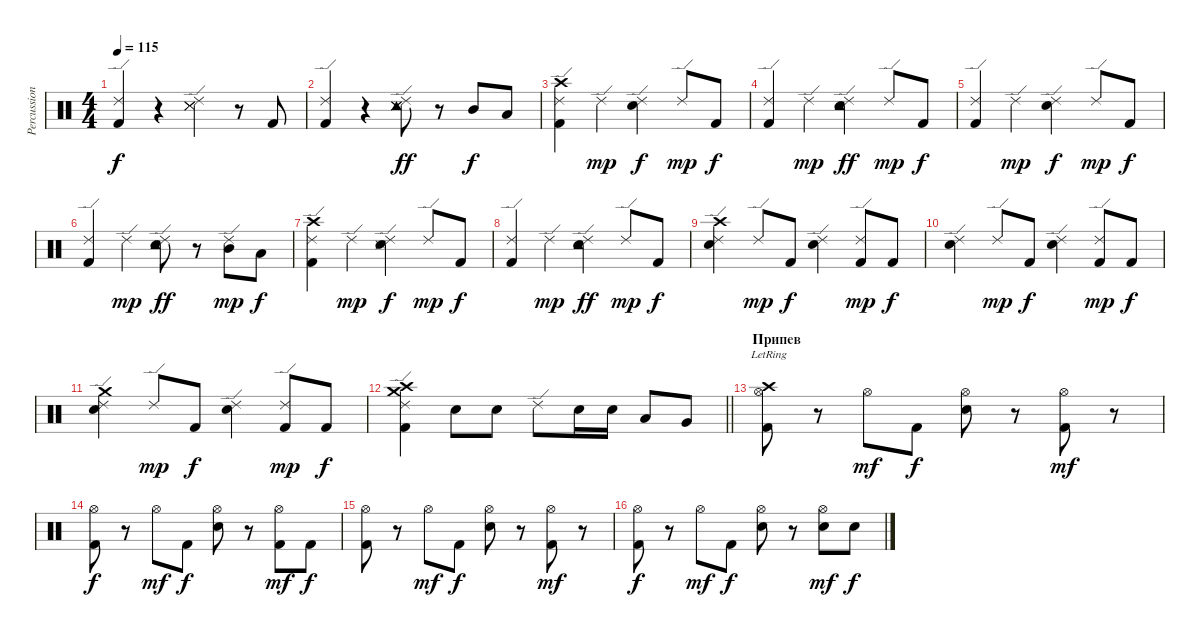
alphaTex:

\track ("Percussions" "Percussion") {instrument percussion}
\staff {score}
\articulation defaults
\ts (4 4)
\tempo 115
\clef neutral
\ks c
("Kick (hit) 2" "Ride (edge) 2").4{dy f} r.4 ("Snare (side stick) 3" "Snare (side stick) 3" "Snare (side stick) 3" "Ride (edge) 2").4 r.8 "Kick (hit) 2".8 |
("Kick (hit) 2" "Ride (edge) 2").4 r.4 ("Snare (side stick) 3" "Snare (side stick) 3" "Snare (side stick) 3" "Tambourine (hit)" "Ride (edge) 2").8{dy ff} r.8 "Mid Tom (hit)".8{dy f} "Low Tom (hit)".8 |
("Crash high (hit)" "Kick (hit) 2" "Ride (edge) 2").4 "Ride (edge) 2".4{dy mp} ("Electric Snare (hit)" "Ride (edge) 2").4{dy f} "Ride (edge) 2".8{dy mp} "Kick (hit) 2".8{dy f} |
("Kick (hit) 2" "Ride (edge) 2").4 "Ride (edge) 2".4{dy mp} ("Electric Snare (hit)" "Tambourine (hit)" "Ride (edge) 2").4{dy ff} "Ride (edge) 2".8{dy mp} "Kick (hit) 2".8{dy f} |
("Kick (hit) 2" "Ride (edge) 2").4 "Ride (edge) 2".4{dy mp} ("Electric Snare (hit)" "Ride (edge) 2").4{dy f} "Ride (edge) 2".8{dy mp} "Kick (hit) 2".8{dy f} |
("Kick (hit) 2" "Ride (edge) 2").4 "Ride (edge) 2".4{dy mp} ("Electric Snare (hit)" "Tambourine (hit)" "Ride (edge) 2").8{dy ff} r.8 ("Mid Tom (hit)" "Ride (edge) 2").8{dy mp} "Low Tom (hit)".8{dy f} |
("Crash high (hit)" "Kick (hit) 2" "Ride (edge) 2").4 "Ride (edge) 2".4{dy mp} ("Snare (side stick) 3" "Electric Snare (hit)" "Ride (edge) 2").4{dy f} "Ride (edge) 2".8{dy mp} "Kick (hit) 2".8{dy f} |
("Kick (hit) 2" "Ride (edge) 2").4 "Ride (edge) 2".4{dy mp} ("Electric Snare (hit)" "Tambourine (hit)" "Ride (edge) 2").4{dy ff} "Ride (edge) 2".8{dy mp} "Kick (hit) 2".8{dy f} |
("Crash high (hit)" "Electric Snare (hit)" "Ride (edge) 2").4 "Ride (edge) 2".8{dy mp} "Kick (hit) 2".8{dy f} ("Electric Snare (hit)" "Ride (edge) 2").4 ("Kick (hit) 2" "Ride (edge) 2").8{dy mp} "Kick (hit) 2".8{dy f} |
("Electric Snare (hit)" "Ride (edge) 2").4 "Ride (edge) 2".8{dy mp} "Kick (hit) 2".8{dy f} ("Electric Snare (hit)" "Ride (edge) 2").4 ("Kick (hit) 2" "Ride (edge) 2").8{dy mp} "Kick (hit) 2".8{dy f} |
("Crash medium (hit)" "Electric Snare (hit)" "Ride (edge) 2").4 "Ride (edge) 2".8{dy mp} "Kick (hit) 2".8{dy f} ("Electric Snare (hit)" "Ride (edge) 2").4 ("Kick (hit) 2" "Ride (edge) 2").8{dy mp} "Kick (hit) 2".8{dy f} |
\barLineRight lightlight
("Crash high (hit)" "Crash medium (hit)" "Kick (hit) 2" "Ride (edge) 2").4 "Electric Snare (hit)".8 "Electric Snare (hit)".8 "Ride (edge) 2".8 "Electric Snare (hit)".16 "Electric Snare (hit)".16 "Low Tom (hit)".8 "Very Low Tom (hit)".8 |
\section ("" "Припев")
("Crash high (hit)"{lr} "Kick (hit) 2" "Hi-Hat (open)").8 r.8 "Hi-Hat (open)".8{dy mf} "Kick (hit) 2".8{dy f} ("Electric Snare (hit)" "Hi-Hat (open)").8 r.8 ("Kick (hit) 2" "Hi-Hat (open)").8{dy mf} r.8 |
("Kick (hit) 2" "Hi-Hat (open)").8{dy f} r.8 "Hi-Hat (open)".8{dy mf} "Kick (hit) 2".8{dy f} ("Electric Snare (hit)" "Hi-Hat (open)").8 r.8 ("Kick (hit) 2" "Hi-Hat (open)").8{dy mf} "Kick (hit) 2".8{dy f} |
("Kick (hit) 2" "Hi-Hat (open)").8 r.8 "Hi-Hat (open)".8{dy mf} "Kick (hit) 2".8{dy f} ("Electric Snare (hit)" "Hi-Hat (open)").8 r.8 ("Kick (hit) 2" "Hi-Hat (open)").8{dy mf} r.8 |
("Kick (hit) 2" "Hi-Hat (open)").8{dy f} r.8 "Hi-Hat (open)".8{dy mf} "Kick (hit) 2".8{dy f} ("Electric Snare (hit)" "Hi-Hat (open)").8 r.8 ("Electric Snare (hit)" "Hi-Hat (open)").8{dy mf} "Electric Snare (hit)".8{dy f}
